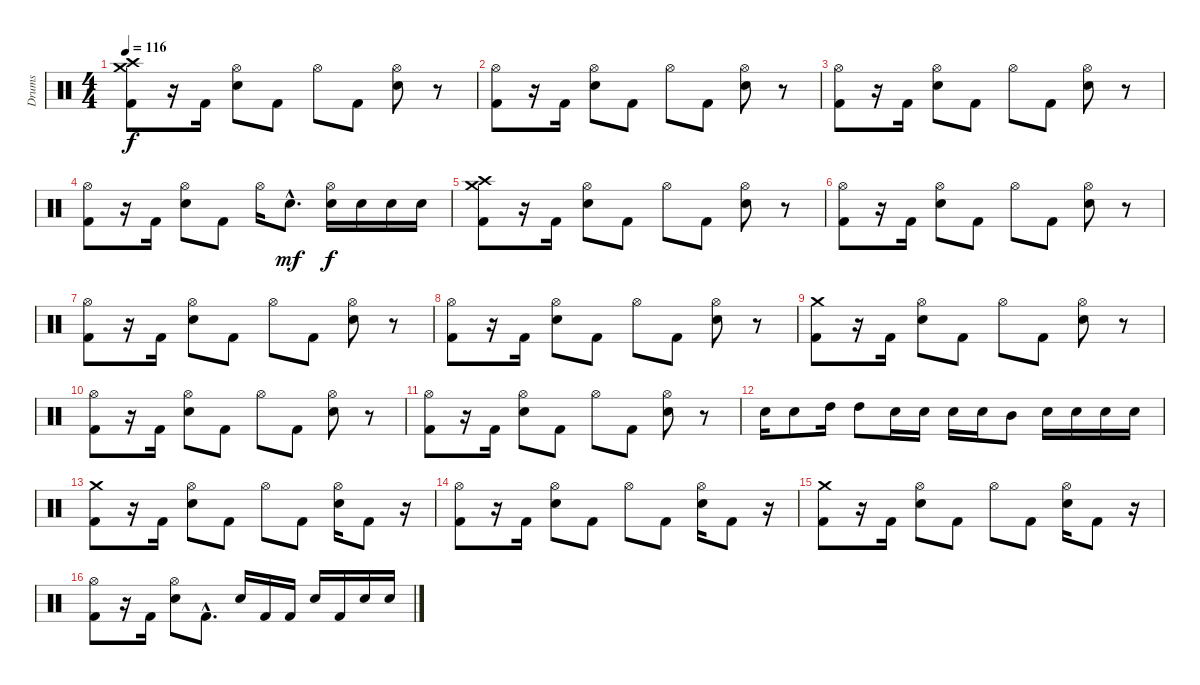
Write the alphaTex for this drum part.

\track ("Drums" "Drums") {instrument percussion}
\staff {score}
\articulation defaults
\ts (4 4)
\tempo 116
\clef neutral
\ks c
("Crash medium (hit)" "Crash high (hit)" "Kick (hit) 2").8{dy f} r.16 "Kick (hit) 2".16 ("Hi-Hat (open)" "Electric Snare (hit)").8 "Kick (hit) 2".8 "Hi-Hat (open)".8 "Kick (hit) 2".8 ("Hi-Hat (open)" "Electric Snare (hit)").8 r.8 |
("Hi-Hat (open)" "Kick (hit) 2").8 r.16 "Kick (hit) 2".16 ("Hi-Hat (open)" "Electric Snare (hit)").8 "Kick (hit) 2".8 "Hi-Hat (open)".8 "Kick (hit) 2".8 ("Hi-Hat (open)" "Electric Snare (hit)").8 r.8 |
("Hi-Hat (open)" "Kick (hit) 2").8 r.16 "Kick (hit) 2".16 ("Hi-Hat (open)" "Electric Snare (hit)").8 "Kick (hit) 2".8 "Hi-Hat (open)".8 "Kick (hit) 2".8 ("Hi-Hat (open)" "Electric Snare (hit)").8 r.8 |
("Hi-Hat (open)" "Kick (hit) 2").8 r.16 "Kick (hit) 2".16 ("Hi-Hat (open)" "Electric Snare (hit)").8 "Kick (hit) 2".8 "Hi-Hat (open)".16 "Electric Snare (hit)"{hac}.8{d dy mf} ("Hi-Hat (open)" "Electric Snare (hit)").16{dy f} "Electric Snare (hit)".16 "Electric Snare (hit)".16 "Electric Snare (hit)".16 |
("Crash medium (hit)" "Crash high (hit)" "Kick (hit) 2").8 r.16 "Kick (hit) 2".16 ("Hi-Hat (open)" "Electric Snare (hit)").8 "Kick (hit) 2".8 "Hi-Hat (open)".8 "Kick (hit) 2".8 ("Hi-Hat (open)" "Electric Snare (hit)").8 r.8 |
("Hi-Hat (open)" "Kick (hit) 2").8 r.16 "Kick (hit) 2".16 ("Hi-Hat (open)" "Electric Snare (hit)").8 "Kick (hit) 2".8 "Hi-Hat (open)".8 "Kick (hit) 2".8 ("Hi-Hat (open)" "Electric Snare (hit)").8 r.8 |
("Hi-Hat (open)" "Kick (hit) 2").8 r.16 "Kick (hit) 2".16 ("Hi-Hat (open)" "Electric Snare (hit)").8 "Kick (hit) 2".8 "Hi-Hat (open)".8 "Kick (hit) 2".8 ("Hi-Hat (open)" "Electric Snare (hit)").8 r.8 |
("Hi-Hat (open)" "Kick (hit) 2").8 r.16 "Kick (hit) 2".16 ("Hi-Hat (open)" "Electric Snare (hit)").8 "Kick (hit) 2".8 "Hi-Hat (open)".8 "Kick (hit) 2".8 ("Hi-Hat (open)" "Electric Snare (hit)").8 r.8 |
("Crash medium (hit)" "Kick (hit) 2").8 r.16 "Kick (hit) 2".16 ("Hi-Hat (open)" "Electric Snare (hit)").8 "Kick (hit) 2".8 "Hi-Hat (open)".8 "Kick (hit) 2".8 ("Hi-Hat (open)" "Electric Snare (hit)").8 r.8 |
("Hi-Hat (open)" "Kick (hit) 2").8 r.16 "Kick (hit) 2".16 ("Hi-Hat (open)" "Electric Snare (hit)").8 "Kick (hit) 2".8 "Hi-Hat (open)".8 "Kick (hit) 2".8 ("Hi-Hat (open)" "Electric Snare (hit)").8 r.8 |
("Hi-Hat (open)" "Kick (hit) 2").8 r.16 "Kick (hit) 2".16 ("Hi-Hat (open)" "Electric Snare (hit)").8 "Kick (hit) 2".8 "Hi-Hat (open)".8 "Kick (hit) 2".8 ("Hi-Hat (open)" "Electric Snare (hit)").8 r.8 |
"Electric Snare (hit)".16 "Electric Snare (hit)".8 "High Tom (hit)".16 "High Tom (hit)".8 "Electric Snare (hit)".16 "Electric Snare (hit)".16 "Electric Snare (hit)".16 "Electric Snare (hit)".16 "Mid Tom (hit)".8 "Electric Snare (hit)".16 "Electric Snare (hit)".16 "Electric Snare (hit)".16 "Electric Snare (hit)".16 |
("Crash medium (hit)" "Kick (hit) 2").8 r.16 "Kick (hit) 2".16 ("Hi-Hat (open)" "Electric Snare (hit)").8 "Kick (hit) 2".8 "Hi-Hat (open)".8 "Kick (hit) 2".8 ("Hi-Hat (open)" "Electric Snare (hit)").16 "Kick (hit) 2".8 r.16 |
("Hi-Hat (open)" "Kick (hit) 2").8 r.16 "Kick (hit) 2".16 ("Hi-Hat (open)" "Electric Snare (hit)").8 "Kick (hit) 2".8 "Hi-Hat (open)".8 "Kick (hit) 2".8 ("Hi-Hat (open)" "Electric Snare (hit)").16 "Kick (hit) 2".8 r.16 |
("Crash medium (hit)" "Kick (hit) 2").8 r.16 "Kick (hit) 2".16 ("Hi-Hat (open)" "Electric Snare (hit)").8 "Kick (hit) 2".8 "Hi-Hat (open)".8 "Kick (hit) 2".8 ("Hi-Hat (open)" "Electric Snare (hit)").16 "Kick (hit) 2".8 r.16 |
("Hi-Hat (open)" "Kick (hit) 2").8 r.16 "Kick (hit) 2".16 ("Hi-Hat (open)" "Electric Snare (hit)").8 "Kick (hit) 2"{hac}.8{d} "Electric Snare (hit)".16 "Kick (hit) 2".16 "Kick (hit) 2".16 "Electric Snare (hit)".16 "Kick (hit) 2".16 "Electric Snare (hit)".16 "Electric Snare (hit)".16
